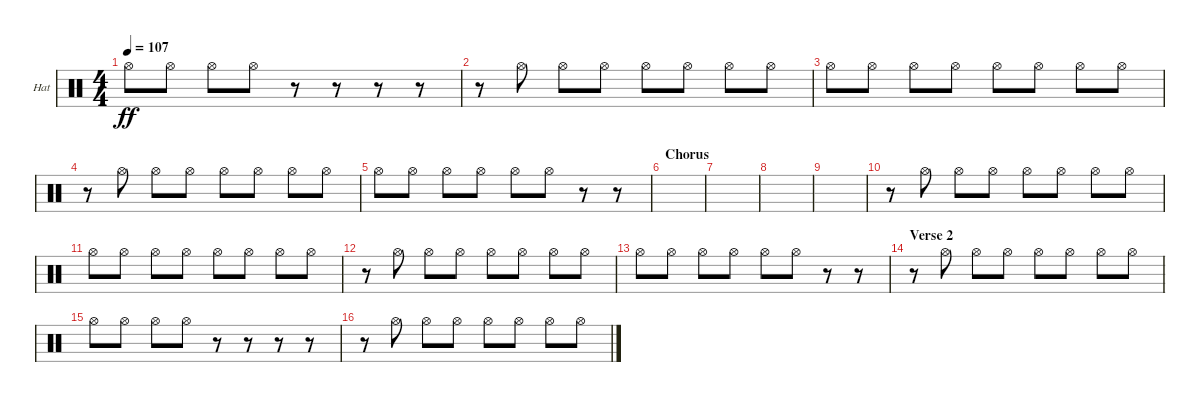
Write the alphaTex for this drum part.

\bracketExtendMode groupsimilarinstruments
\firstSystemTrackNameOrientation horizontal
\otherSystemsTrackNameOrientation horizontal
\track ("Hat" "Hat") {instrument percussion}
\staff {score}
\articulation defaults
\ts (4 4)
\tempo 107
\clef neutral
\ks c "Hi-Hat (open)".8{dy ff} "Hi-Hat (open)".8 "Hi-Hat (open)".8 "Hi-Hat (open)".8
r.8 r.8 r.8 r.8 |
r.8 "Hi-Hat (open)".8 "Hi-Hat (open)".8 "Hi-Hat (open)".8 "Hi-Hat (open)".8 "Hi-Hat (open)".8 "Hi-Hat (open)".8 "Hi-Hat (open)".8 |
"Hi-Hat (open)".8 "Hi-Hat (open)".8 "Hi-Hat (open)".8 "Hi-Hat (open)".8 "Hi-Hat (open)".8 "Hi-Hat (open)".8 "Hi-Hat (open)".8 "Hi-Hat (open)".8 |
r.8 "Hi-Hat (open)".8 "Hi-Hat (open)".8 "Hi-Hat (open)".8 "Hi-Hat (open)".8 "Hi-Hat (open)".8 "Hi-Hat (open)".8 "Hi-Hat (open)".8 |
"Hi-Hat (open)".8 "Hi-Hat (open)".8 "Hi-Hat (open)".8 "Hi-Hat (open)".8 "Hi-Hat (open)".8 "Hi-Hat (open)".8 r.8 r.8 |
\section ("" "Chorus")
|
|
|
|
r.8 "Hi-Hat (open)".8 "Hi-Hat (open)".8 "Hi-Hat (open)".8 "Hi-Hat (open)".8 "Hi-Hat (open)".8 "Hi-Hat (open)".8 "Hi-Hat (open)".8 |
"Hi-Hat (open)".8 "Hi-Hat (open)".8 "Hi-Hat (open)".8 "Hi-Hat (open)".8 "Hi-Hat (open)".8 "Hi-Hat (open)".8 "Hi-Hat (open)".8 "Hi-Hat (open)".8 |
r.8 "Hi-Hat (open)".8 "Hi-Hat (open)".8 "Hi-Hat (open)".8 "Hi-Hat (open)".8 "Hi-Hat (open)".8 "Hi-Hat (open)".8 "Hi-Hat (open)".8 |
"Hi-Hat (open)".8 "Hi-Hat (open)".8 "Hi-Hat (open)".8 "Hi-Hat (open)".8 "Hi-Hat (open)".8 "Hi-Hat (open)".8 r.8 r.8 |
\section ("" "Verse 2")
r.8 "Hi-Hat (open)".8 "Hi-Hat (open)".8 "Hi-Hat (open)".8 "Hi-Hat (open)".8 "Hi-Hat (open)".8 "Hi-Hat (open)".8 "Hi-Hat (open)".8 |
"Hi-Hat (open)".8 "Hi-Hat (open)".8 "Hi-Hat (open)".8 "Hi-Hat (open)".8 r.8 r.8 r.8 r.8 |
r.8 "Hi-Hat (open)".8 "Hi-Hat (open)".8 "Hi-Hat (open)".8 "Hi-Hat (open)".8 "Hi-Hat (open)".8 "Hi-Hat (open)".8 "Hi-Hat (open)".8
